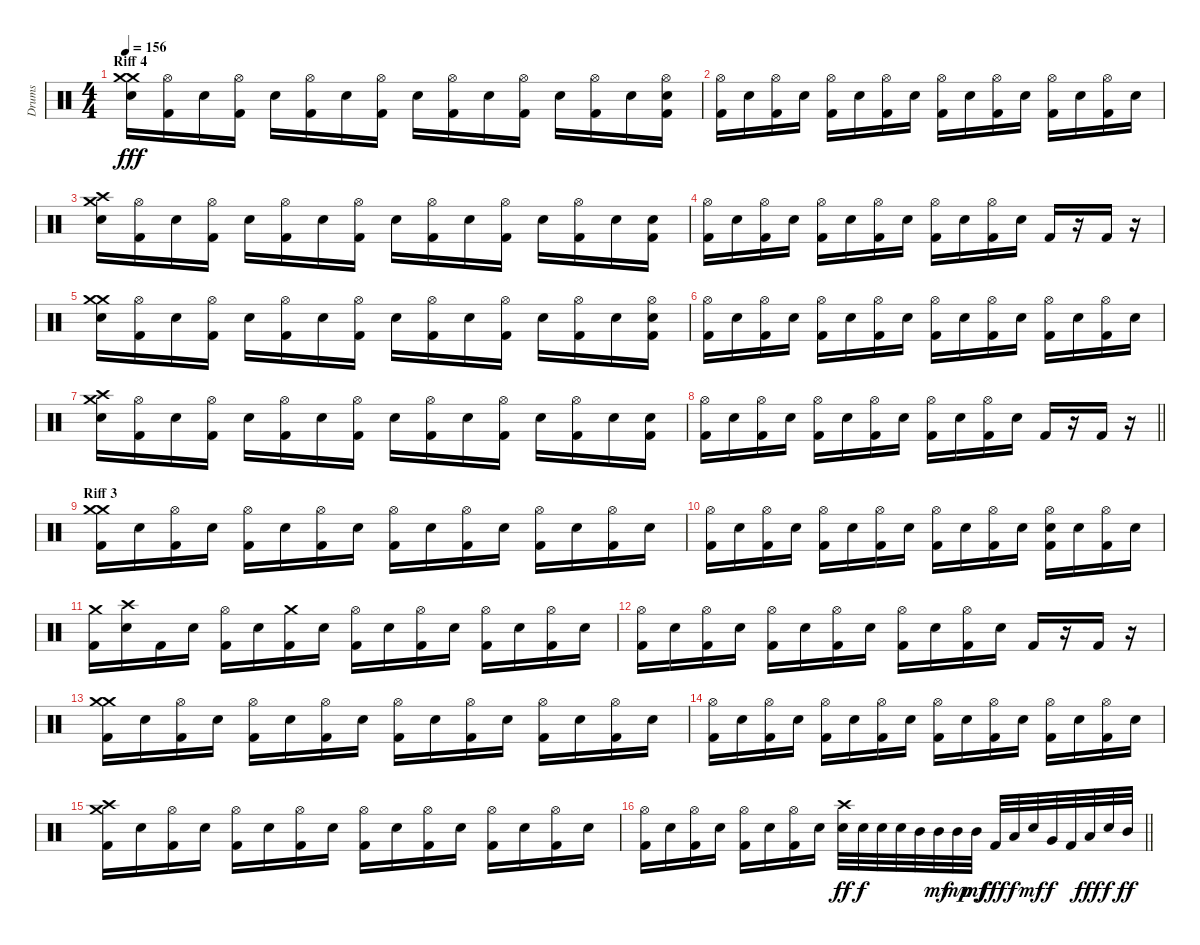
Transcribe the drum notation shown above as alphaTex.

\track ("Drums" "Drums") {instrument percussion}
\staff {score}
\articulation defaults
\ts (4 4)
\section ("" "Riff 4")
\tempo 156
\clef neutral
\ks c
("Snare (hit) 2" "Crash medium (hit)" "Crash medium (hit)").16{dy fff} ("Kick (hit) 2" "Hi-Hat (open)").16 "Snare (hit) 2".16 ("Kick (hit) 2" "Hi-Hat (open)").16 "Snare (hit) 2".16 ("Kick (hit) 2" "Hi-Hat (open)").16 "Snare (hit) 2".16 ("Kick (hit) 2" "Hi-Hat (open)").16 "Snare (hit) 2".16 ("Kick (hit) 2" "Hi-Hat (open)").16 "Snare (hit) 2".16 ("Kick (hit) 2" "Hi-Hat (open)").16 "Snare (hit) 2".16 ("Kick (hit) 2" "Hi-Hat (open)").16 "Snare (hit) 2".16 ("Kick (hit) 2" "Snare (hit) 2" "Hi-Hat (open)").16 |
("Kick (hit) 2" "Hi-Hat (open)").16 "Snare (hit) 2".16 ("Kick (hit) 2" "Hi-Hat (open)").16 "Snare (hit) 2".16 ("Kick (hit) 2" "Hi-Hat (open)").16 "Snare (hit) 2".16 ("Kick (hit) 2" "Hi-Hat (open)").16 "Snare (hit) 2".16 ("Kick (hit) 2" "Hi-Hat (open)").16 "Snare (hit) 2".16 ("Kick (hit) 2" "Hi-Hat (open)").16 "Snare (hit) 2".16 ("Kick (hit) 2" "Hi-Hat (open)").16 "Snare (hit) 2".16 ("Kick (hit) 2" "Hi-Hat (open)").16 "Snare (hit) 2".16 |
("Snare (hit) 2" "Crash high (hit)" "Crash medium (hit)").16 ("Kick (hit) 2" "Hi-Hat (open)").16 "Snare (hit) 2".16 ("Kick (hit) 2" "Hi-Hat (open)").16 "Snare (hit) 2".16 ("Kick (hit) 2" "Hi-Hat (open)").16 "Snare (hit) 2".16 ("Kick (hit) 2" "Hi-Hat (open)").16 "Snare (hit) 2".16 ("Kick (hit) 2" "Hi-Hat (open)").16 "Snare (hit) 2".16 ("Kick (hit) 2" "Hi-Hat (open)").16 "Snare (hit) 2".16 ("Kick (hit) 2" "Hi-Hat (open)").16 "Snare (hit) 2".16 ("Kick (hit) 2" "Snare (hit) 2").16 |
("Kick (hit) 2" "Hi-Hat (open)").16 "Snare (hit) 2".16 ("Kick (hit) 2" "Hi-Hat (open)").16 "Snare (hit) 2".16 ("Kick (hit) 2" "Hi-Hat (open)").16 "Snare (hit) 2".16 ("Kick (hit) 2" "Hi-Hat (open)").16 "Snare (hit) 2".16 ("Kick (hit) 2" "Hi-Hat (open)").16 "Snare (hit) 2".16 ("Kick (hit) 2" "Hi-Hat (open)").16 "Snare (hit) 2".16 "Kick (hit) 2".16 r.16 "Kick (hit) 2".16 r.16 |
("Snare (hit) 2" "Crash medium (hit)" "Crash medium (hit)").16 ("Kick (hit) 2" "Hi-Hat (open)").16 "Snare (hit) 2".16 ("Kick (hit) 2" "Hi-Hat (open)").16 "Snare (hit) 2".16 ("Kick (hit) 2" "Hi-Hat (open)").16 "Snare (hit) 2".16 ("Kick (hit) 2" "Hi-Hat (open)").16 "Snare (hit) 2".16 ("Kick (hit) 2" "Hi-Hat (open)").16 "Snare (hit) 2".16 ("Kick (hit) 2" "Hi-Hat (open)").16 "Snare (hit) 2".16 ("Kick (hit) 2" "Hi-Hat (open)").16 "Snare (hit) 2".16 ("Kick (hit) 2" "Snare (hit) 2" "Hi-Hat (open)").16 |
("Kick (hit) 2" "Hi-Hat (open)").16 "Snare (hit) 2".16 ("Kick (hit) 2" "Hi-Hat (open)").16 "Snare (hit) 2".16 ("Kick (hit) 2" "Hi-Hat (open)").16 "Snare (hit) 2".16 ("Kick (hit) 2" "Hi-Hat (open)").16 "Snare (hit) 2".16 ("Kick (hit) 2" "Hi-Hat (open)").16 "Snare (hit) 2".16 ("Kick (hit) 2" "Hi-Hat (open)").16 "Snare (hit) 2".16 ("Kick (hit) 2" "Hi-Hat (open)").16 "Snare (hit) 2".16 ("Kick (hit) 2" "Hi-Hat (open)").16 "Snare (hit) 2".16 |
("Snare (hit) 2" "Crash high (hit)" "Crash medium (hit)").16 ("Kick (hit) 2" "Hi-Hat (open)").16 "Snare (hit) 2".16 ("Kick (hit) 2" "Hi-Hat (open)").16 "Snare (hit) 2".16 ("Kick (hit) 2" "Hi-Hat (open)").16 "Snare (hit) 2".16 ("Kick (hit) 2" "Hi-Hat (open)").16 "Snare (hit) 2".16 ("Kick (hit) 2" "Hi-Hat (open)").16 "Snare (hit) 2".16 ("Kick (hit) 2" "Hi-Hat (open)").16 "Snare (hit) 2".16 ("Kick (hit) 2" "Hi-Hat (open)").16 "Snare (hit) 2".16 ("Kick (hit) 2" "Snare (hit) 2").16 |
\barLineRight lightlight
("Kick (hit) 2" "Hi-Hat (open)").16 "Snare (hit) 2".16 ("Kick (hit) 2" "Hi-Hat (open)").16 "Snare (hit) 2".16 ("Kick (hit) 2" "Hi-Hat (open)").16 "Snare (hit) 2".16 ("Kick (hit) 2" "Hi-Hat (open)").16 "Snare (hit) 2".16 ("Kick (hit) 2" "Hi-Hat (open)").16 "Snare (hit) 2".16 ("Kick (hit) 2" "Hi-Hat (open)").16 "Snare (hit) 2".16 "Kick (hit) 2".16 r.16 "Kick (hit) 2".16 r.16 |
\section ("" "Riff 3")
("Kick (hit) 2" "Crash medium (hit)" "Crash medium (hit)").16 "Snare (hit) 2".16 ("Kick (hit) 2" "Hi-Hat (open)").16 "Snare (hit) 2".16 ("Kick (hit) 2" "Hi-Hat (open)").16 "Snare (hit) 2".16 ("Kick (hit) 2" "Hi-Hat (open)").16 "Snare (hit) 2".16 ("Kick (hit) 2" "Hi-Hat (open)").16 "Snare (hit) 2".16 ("Kick (hit) 2" "Hi-Hat (open)").16 "Snare (hit) 2".16 ("Kick (hit) 2" "Hi-Hat (open)").16 "Snare (hit) 2".16 ("Kick (hit) 2" "Hi-Hat (open)").16 "Snare (hit) 2".16 |
("Kick (hit) 2" "Hi-Hat (open)").16 "Snare (hit) 2".16 ("Kick (hit) 2" "Hi-Hat (open)").16 "Snare (hit) 2".16 ("Kick (hit) 2" "Hi-Hat (open)").16 "Snare (hit) 2".16 ("Kick (hit) 2" "Hi-Hat (open)").16 "Snare (hit) 2".16 ("Kick (hit) 2" "Hi-Hat (open)").16 "Snare (hit) 2".16 ("Kick (hit) 2" "Hi-Hat (open)").16 "Snare (hit) 2".16 ("Kick (hit) 2" "Snare (hit) 2" "Hi-Hat (open)").16 "Snare (hit) 2".16 ("Kick (hit) 2" "Hi-Hat (open)").16 "Snare (hit) 2".16 |
("Kick (hit) 2" "Crash medium (hit)").16 ("Snare (hit) 2" "Crash high (hit)").16 "Kick (hit) 2".16 "Snare (hit) 2".16 ("Kick (hit) 2" "Hi-Hat (open)").16 "Snare (hit) 2".16 ("Kick (hit) 2" "Crash medium (hit)").16 "Snare (hit) 2".16 ("Kick (hit) 2" "Hi-Hat (open)").16 "Snare (hit) 2".16 ("Kick (hit) 2" "Hi-Hat (open)").16 "Snare (hit) 2".16 ("Kick (hit) 2" "Hi-Hat (open)").16 "Snare (hit) 2".16 ("Kick (hit) 2" "Hi-Hat (open)").16 "Snare (hit) 2".16 |
("Kick (hit) 2" "Hi-Hat (open)").16 "Snare (hit) 2".16 ("Kick (hit) 2" "Hi-Hat (open)").16 "Snare (hit) 2".16 ("Kick (hit) 2" "Hi-Hat (open)").16 "Snare (hit) 2".16 ("Kick (hit) 2" "Hi-Hat (open)").16 "Snare (hit) 2".16 ("Kick (hit) 2" "Hi-Hat (open)").16 "Snare (hit) 2".16 ("Kick (hit) 2" "Hi-Hat (open)").16 "Snare (hit) 2".16 "Kick (hit) 2".16 r.16 "Kick (hit) 2".16 r.16 |
("Kick (hit) 2" "Crash medium (hit)" "Crash medium (hit)").16 "Snare (hit) 2".16 ("Kick (hit) 2" "Hi-Hat (open)").16 "Snare (hit) 2".16 ("Kick (hit) 2" "Hi-Hat (open)").16 "Snare (hit) 2".16 ("Kick (hit) 2" "Hi-Hat (open)").16 "Snare (hit) 2".16 ("Kick (hit) 2" "Hi-Hat (open)").16 "Snare (hit) 2".16 ("Kick (hit) 2" "Hi-Hat (open)").16 "Snare (hit) 2".16 ("Kick (hit) 2" "Hi-Hat (open)").16 "Snare (hit) 2".16 ("Kick (hit) 2" "Hi-Hat (open)").16 "Snare (hit) 2".16 |
("Kick (hit) 2" "Hi-Hat (open)").16 "Snare (hit) 2".16 ("Kick (hit) 2" "Hi-Hat (open)").16 "Snare (hit) 2".16 ("Kick (hit) 2" "Hi-Hat (open)").16 "Snare (hit) 2".16 ("Kick (hit) 2" "Hi-Hat (open)").16 "Snare (hit) 2".16 ("Kick (hit) 2" "Hi-Hat (open)").16 "Snare (hit) 2".16 ("Kick (hit) 2" "Hi-Hat (open)").16 "Snare (hit) 2".16 ("Kick (hit) 2" "Hi-Hat (open)").16 "Snare (hit) 2".16 ("Kick (hit) 2" "Hi-Hat (open)").16 "Snare (hit) 2".16 |
("Kick (hit) 2" "Crash high (hit)" "Crash medium (hit)").16 "Snare (hit) 2".16 ("Kick (hit) 2" "Hi-Hat (open)").16 "Snare (hit) 2".16 ("Kick (hit) 2" "Hi-Hat (open)").16 "Snare (hit) 2".16 ("Kick (hit) 2" "Hi-Hat (open)").16 "Snare (hit) 2".16 ("Kick (hit) 2" "Hi-Hat (open)").16 "Snare (hit) 2".16 ("Kick (hit) 2" "Hi-Hat (open)").16 "Snare (hit) 2".16 ("Kick (hit) 2" "Hi-Hat (open)").16 "Snare (hit) 2".16 ("Kick (hit) 2" "Hi-Hat (open)").16 "Snare (hit) 2".16 |
\barLineRight lightlight
("Kick (hit) 2" "Hi-Hat (open)").16 "Snare (hit) 2".16 ("Kick (hit) 2" "Hi-Hat (open)").16 "Snare (hit) 2".16 ("Kick (hit) 2" "Hi-Hat (open)").16 "Snare (hit) 2".16 ("Kick (hit) 2" "Hi-Hat (open)").16 "Snare (hit) 2".16 ("Snare (hit) 2" "Crash high (hit)").32{dy ff} "Snare (hit) 2".32{dy f} "Snare (hit) 2".32 "Snare (hit) 2".32 "Mid Tom (hit)".32 "Mid Tom (hit)".32{dy mf} "Mid Tom (hit)".32{dy mp} "Mid Tom (hit)".32{dy mf} "Kick (hit) 2".32{dy fff} "Low Tom (hit)".32{dy f} "Snare (hit) 2".32{dy mf} "Very Low Tom (hit)".32{dy f} "Kick (hit) 2".32 "Low Tom (hit)".32{dy fff} "Snare (hit) 2".32{dy f} "Mid Tom (hit)".32{dy ff}
